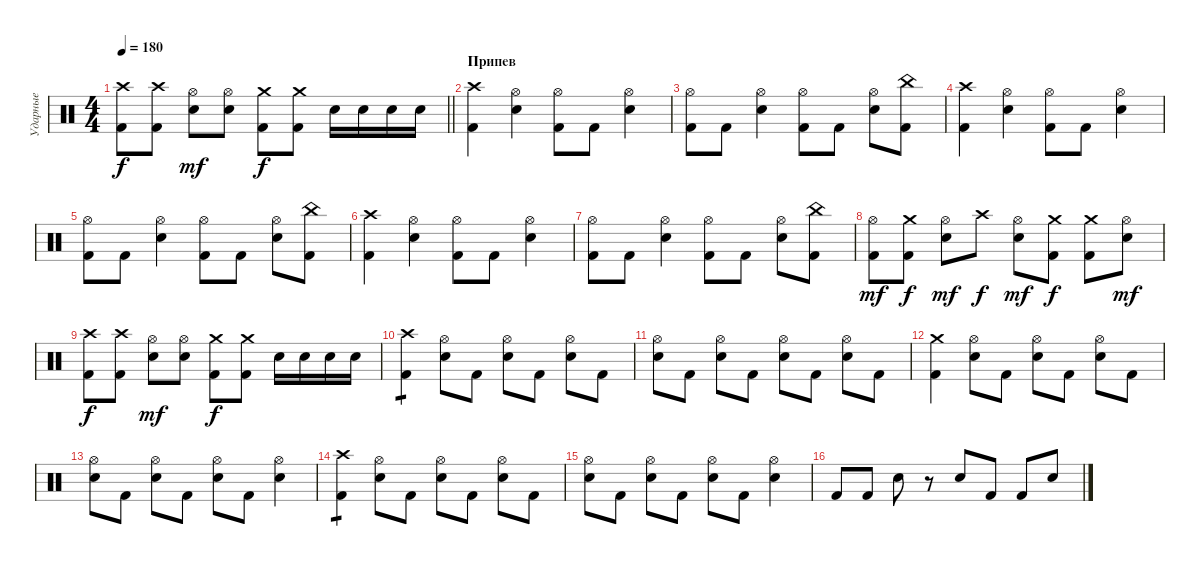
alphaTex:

\track ("Ударные" "Ударные") {instrument percussion}
\staff {score}
\articulation defaults
\ts (4 4)
\tempo 180
\clef neutral
\barLineRight lightlight
\ks c
("Crash high (hit)" "Kick (hit) 2").8{dy f} ("Crash high (hit)" "Kick (hit) 2").8 ("Hi-Hat (open)" "Electric Snare (hit)").8{dy mf} ("Hi-Hat (open)" "Electric Snare (hit)").8 ("Crash medium (hit)" "Kick (hit) 2").8{dy f} ("Crash medium (hit)" "Kick (hit) 2").8 "Electric Snare (hit)".16 "Electric Snare (hit)".16 "Electric Snare (hit)".16 "Electric Snare (hit)".16 |
\section ("" "Припев")
("Crash high (hit)" "Kick (hit) 2").4 ("Electric Snare (hit)" "Hi-Hat (open)").4 ("Kick (hit) 2" "Hi-Hat (open)").8 "Kick (hit) 2".8 ("Electric Snare (hit)" "Hi-Hat (open)").4 |
("Kick (hit) 2" "Hi-Hat (open)").8 "Kick (hit) 2".8 ("Electric Snare (hit)" "Hi-Hat (open)").4 ("Kick (hit) 2" "Hi-Hat (open)").8 "Kick (hit) 2".8 ("Electric Snare (hit)" "Hi-Hat (open)").8 ("Kick (hit) 2" "China (hit)").8 |
("Crash high (hit)" "Kick (hit) 2").4 ("Electric Snare (hit)" "Hi-Hat (open)").4 ("Kick (hit) 2" "Hi-Hat (open)").8 "Kick (hit) 2".8 ("Electric Snare (hit)" "Hi-Hat (open)").4 |
("Kick (hit) 2" "Hi-Hat (open)").8 "Kick (hit) 2".8 ("Electric Snare (hit)" "Hi-Hat (open)").4 ("Kick (hit) 2" "Hi-Hat (open)").8 "Kick (hit) 2".8 ("Electric Snare (hit)" "Hi-Hat (open)").8 ("Kick (hit) 2" "China (hit)").8 |
("Crash high (hit)" "Kick (hit) 2").4 ("Electric Snare (hit)" "Hi-Hat (open)").4 ("Kick (hit) 2" "Hi-Hat (open)").8 "Kick (hit) 2".8 ("Electric Snare (hit)" "Hi-Hat (open)").4 |
("Kick (hit) 2" "Hi-Hat (open)").8 "Kick (hit) 2".8 ("Electric Snare (hit)" "Hi-Hat (open)").4 ("Kick (hit) 2" "Hi-Hat (open)").8 "Kick (hit) 2".8 ("Electric Snare (hit)" "Hi-Hat (open)").8 ("Kick (hit) 2" "China (hit)").8 |
("Hi-Hat (open)" "Kick (hit) 2").8{dy mf} ("Crash medium (hit)" "Kick (hit) 2").8{dy f} ("Hi-Hat (open)" "Electric Snare (hit)").8{dy mf} "Crash high (hit)".8{dy f} ("Hi-Hat (open)" "Electric Snare (hit)").8{dy mf} ("Crash medium (hit)" "Kick (hit) 2").8{dy f} ("Crash medium (hit)" "Kick (hit) 2").8 ("Hi-Hat (open)" "Electric Snare (hit)").8{dy mf} |
("Crash high (hit)" "Kick (hit) 2").8{dy f} ("Crash high (hit)" "Kick (hit) 2").8 ("Hi-Hat (open)" "Electric Snare (hit)").8{dy mf} ("Hi-Hat (open)" "Electric Snare (hit)").8 ("Crash medium (hit)" "Kick (hit) 2").8{dy f} ("Crash medium (hit)" "Kick (hit) 2").8 "Electric Snare (hit)".16 "Electric Snare (hit)".16 "Electric Snare (hit)".16 "Electric Snare (hit)".16 |
("Crash high (hit)" "Kick (hit) 2").4{tp 1} ("Electric Snare (hit)" "Hi-Hat (open)").8 "Kick (hit) 2".8 ("Electric Snare (hit)" "Hi-Hat (open)").8 "Kick (hit) 2".8 ("Electric Snare (hit)" "Hi-Hat (open)").8 "Kick (hit) 2".8 |
("Electric Snare (hit)" "Hi-Hat (open)").8 "Kick (hit) 2".8 ("Electric Snare (hit)" "Hi-Hat (open)").8 "Kick (hit) 2".8 ("Electric Snare (hit)" "Hi-Hat (open)").8 "Kick (hit) 2".8 ("Electric Snare (hit)" "Hi-Hat (open)").8 "Kick (hit) 2".8 |
("Kick (hit) 2" "Crash medium (hit)").4 ("Electric Snare (hit)" "Hi-Hat (open)").8 "Kick (hit) 2".8 ("Electric Snare (hit)" "Hi-Hat (open)").8 "Kick (hit) 2".8 ("Electric Snare (hit)" "Hi-Hat (open)").8 "Kick (hit) 2".8 |
("Electric Snare (hit)" "Hi-Hat (open)").8 "Kick (hit) 2".8 ("Electric Snare (hit)" "Hi-Hat (open)").8 "Kick (hit) 2".8 ("Electric Snare (hit)" "Hi-Hat (open)").8 "Kick (hit) 2".8 ("Electric Snare (hit)" "Hi-Hat (open)").4 |
("Crash high (hit)" "Kick (hit) 2").4{tp 1} ("Electric Snare (hit)" "Hi-Hat (open)").8 "Kick (hit) 2".8 ("Electric Snare (hit)" "Hi-Hat (open)").8 "Kick (hit) 2".8 ("Electric Snare (hit)" "Hi-Hat (open)").8 "Kick (hit) 2".8 |
("Electric Snare (hit)" "Hi-Hat (open)").8 "Kick (hit) 2".8 ("Electric Snare (hit)" "Hi-Hat (open)").8 "Kick (hit) 2".8 ("Electric Snare (hit)" "Hi-Hat (open)").8 "Kick (hit) 2".8 ("Electric Snare (hit)" "Hi-Hat (open)").4 |
"Kick (hit) 2".8 "Kick (hit) 2".8 "Electric Snare (hit)".8 r.8 "Electric Snare (hit)".8 "Kick (hit) 2".8 "Kick (hit) 2".8 "Electric Snare (hit)".8
